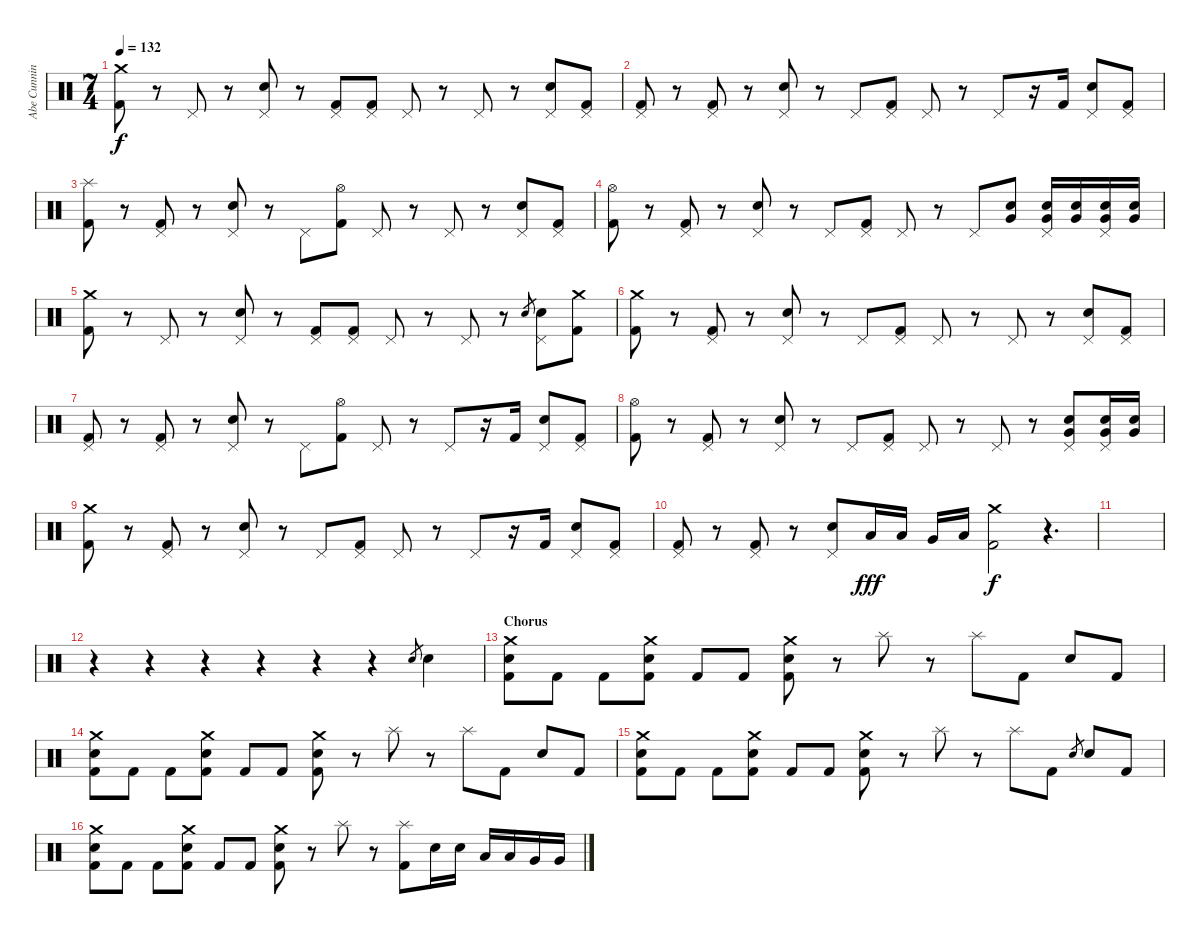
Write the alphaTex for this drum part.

\track ("Abe Cunningham" "Abe Cunnin") {instrument percussion}
\staff {score}
\articulation defaults
\ts (7 4)
\tempo 132
\clef neutral
\ks c
("Crash medium (hit)" "Kick (hit) 2").8{dy f} r.8 "Pedal Hi-Hat (hit)".8 r.8 ("Pedal Hi-Hat (hit)" "Electric Snare (hit)").8 r.8 ("Pedal Hi-Hat (hit)" "Kick (hit) 2").8 ("Pedal Hi-Hat (hit)" "Kick (hit) 2").8 "Pedal Hi-Hat (hit)".8 r.8 "Pedal Hi-Hat (hit)".8 r.8 ("Pedal Hi-Hat (hit)" "Electric Snare (hit)").8 ("Pedal Hi-Hat (hit)" "Kick (hit) 2").8 |
("Pedal Hi-Hat (hit)" "Kick (hit) 2").8 r.8 ("Pedal Hi-Hat (hit)" "Kick (hit) 2").8 r.8 ("Pedal Hi-Hat (hit)" "Electric Snare (hit)").8 r.8 "Pedal Hi-Hat (hit)".8 ("Pedal Hi-Hat (hit)" "Kick (hit) 2").8 "Pedal Hi-Hat (hit)".8 r.8 "Pedal Hi-Hat (hit)".8 r.16 "Kick (hit) 2".16 ("Pedal Hi-Hat (hit)" "Electric Snare (hit)").8 ("Pedal Hi-Hat (hit)" "Kick (hit) 2").8 |
("Splash (hit)" "Kick (hit) 2").8 r.8 ("Pedal Hi-Hat (hit)" "Kick (hit) 2").8 r.8 ("Pedal Hi-Hat (hit)" "Electric Snare (hit)").8 r.8 "Pedal Hi-Hat (hit)".8 ("Hi-Hat (open)" "Kick (hit) 2").8 "Pedal Hi-Hat (hit)".8 r.8 "Pedal Hi-Hat (hit)".8 r.8 ("Pedal Hi-Hat (hit)" "Electric Snare (hit)").8 ("Pedal Hi-Hat (hit)" "Kick (hit) 2").8 |
("Hi-Hat (open)" "Kick (hit) 2").8 r.8 ("Pedal Hi-Hat (hit)" "Kick (hit) 2").8 r.8 ("Pedal Hi-Hat (hit)" "Electric Snare (hit)").8 r.8 "Pedal Hi-Hat (hit)".8 ("Pedal Hi-Hat (hit)" "Kick (hit) 2").8 "Pedal Hi-Hat (hit)".8 r.8 "Pedal Hi-Hat (hit)".8 ("Electric Snare (hit)" "Very Low Tom (hit)").8 ("Pedal Hi-Hat (hit)" "Electric Snare (hit)" "Very Low Tom (hit)").16 ("Electric Snare (hit)" "Very Low Tom (hit)").16 ("Pedal Hi-Hat (hit)" "Electric Snare (hit)" "Very Low Tom (hit)").16 ("Electric Snare (hit)" "Very Low Tom (hit)").16 |
("Crash medium (hit)" "Kick (hit) 2").8 r.8 "Pedal Hi-Hat (hit)".8 r.8 ("Pedal Hi-Hat (hit)" "Electric Snare (hit)").8 r.8 ("Pedal Hi-Hat (hit)" "Kick (hit) 2").8 ("Pedal Hi-Hat (hit)" "Kick (hit) 2").8 "Pedal Hi-Hat (hit)".8 r.8 "Pedal Hi-Hat (hit)".8 r.8 "Electric Snare (hit)".8{gr} ("Pedal Hi-Hat (hit)" "Electric Snare (hit)").8 ("Crash medium (hit)" "Kick (hit) 2").8 |
("Crash medium (hit)" "Kick (hit) 2").8 r.8 ("Pedal Hi-Hat (hit)" "Kick (hit) 2").8 r.8 ("Pedal Hi-Hat (hit)" "Electric Snare (hit)").8 r.8 "Pedal Hi-Hat (hit)".8 ("Pedal Hi-Hat (hit)" "Kick (hit) 2").8 "Pedal Hi-Hat (hit)".8 r.8 "Pedal Hi-Hat (hit)".8 r.8 ("Pedal Hi-Hat (hit)" "Electric Snare (hit)").8 ("Pedal Hi-Hat (hit)" "Kick (hit) 2").8 |
("Pedal Hi-Hat (hit)" "Kick (hit) 2").8 r.8 ("Pedal Hi-Hat (hit)" "Kick (hit) 2").8 r.8 ("Pedal Hi-Hat (hit)" "Electric Snare (hit)").8 r.8 "Pedal Hi-Hat (hit)".8 ("Hi-Hat (open)" "Kick (hit) 2").8 "Pedal Hi-Hat (hit)".8 r.8 "Pedal Hi-Hat (hit)".8 r.16 "Kick (hit) 2".16 ("Pedal Hi-Hat (hit)" "Electric Snare (hit)").8 ("Pedal Hi-Hat (hit)" "Kick (hit) 2").8 |
("Hi-Hat (open)" "Kick (hit) 2").8 r.8 ("Pedal Hi-Hat (hit)" "Kick (hit) 2").8 r.8 ("Pedal Hi-Hat (hit)" "Electric Snare (hit)").8 r.8 "Pedal Hi-Hat (hit)".8 ("Pedal Hi-Hat (hit)" "Kick (hit) 2").8 "Pedal Hi-Hat (hit)".8 r.8 "Pedal Hi-Hat (hit)".8 r.8 ("Pedal Hi-Hat (hit)" "Electric Snare (hit)" "Very Low Tom (hit)").8 ("Pedal Hi-Hat (hit)" "Electric Snare (hit)" "Very Low Tom (hit)").16 ("Electric Snare (hit)" "Very Low Tom (hit)").16 |
("Crash medium (hit)" "Kick (hit) 2").8 r.8 ("Pedal Hi-Hat (hit)" "Kick (hit) 2").8 r.8 ("Pedal Hi-Hat (hit)" "Electric Snare (hit)").8 r.8 "Pedal Hi-Hat (hit)".8 ("Pedal Hi-Hat (hit)" "Kick (hit) 2").8 "Pedal Hi-Hat (hit)".8 r.8 "Pedal Hi-Hat (hit)".8 r.16 "Kick (hit) 2".16 ("Pedal Hi-Hat (hit)" "Electric Snare (hit)").8 ("Pedal Hi-Hat (hit)" "Kick (hit) 2").8 |
("Pedal Hi-Hat (hit)" "Kick (hit) 2").8 r.8 ("Pedal Hi-Hat (hit)" "Kick (hit) 2").8 r.8 ("Pedal Hi-Hat (hit)" "Electric Snare (hit)").8 "Low Tom (hit)".16{dy fff} "Low Tom (hit)".16 "Very Low Tom (hit)".16 "Low Floor Tom (hit)".16 ("Crash medium (hit)" "Kick (hit) 2").2{dy f} r.4{d} |
|
r.4 r.4 r.4 r.4 r.4 r.4 "Electric Snare (hit)".8{gr} "Electric Snare (hit)".4 |
\section ("" "Chorus")
("Crash medium (hit)" "Electric Snare (hit)" "Kick (hit) 2").8 "Kick (hit) 2".8 "Kick (hit) 2".8 ("Crash medium (hit)" "Electric Snare (hit)" "Kick (hit) 2").8 "Kick (hit) 2".8 "Kick (hit) 2".8 ("Crash medium (hit)" "Electric Snare (hit)" "Kick (hit) 2").8 r.8 "Splash (hit)".8 r.8 "Splash (hit)".8 "Kick (hit) 2".8 "Electric Snare (hit)".8 "Kick (hit) 2".8 |
("Crash medium (hit)" "Electric Snare (hit)" "Kick (hit) 2").8 "Kick (hit) 2".8 "Kick (hit) 2".8 ("Crash medium (hit)" "Electric Snare (hit)" "Kick (hit) 2").8 "Kick (hit) 2".8 "Kick (hit) 2".8 ("Crash medium (hit)" "Electric Snare (hit)" "Kick (hit) 2").8 r.8 "Splash (hit)".8 r.8 "Splash (hit)".8 "Kick (hit) 2".8 "Electric Snare (hit)".8 "Kick (hit) 2".8 |
("Crash medium (hit)" "Electric Snare (hit)" "Kick (hit) 2").8 "Kick (hit) 2".8 "Kick (hit) 2".8 ("Crash medium (hit)" "Electric Snare (hit)" "Kick (hit) 2").8 "Kick (hit) 2".8 "Kick (hit) 2".8 ("Crash medium (hit)" "Electric Snare (hit)" "Kick (hit) 2").8 r.8 "Splash (hit)".8 r.8 "Splash (hit)".8 "Kick (hit) 2".8 "Electric Snare (hit)".8{gr} "Electric Snare (hit)".8 "Kick (hit) 2".8 |
("Crash medium (hit)" "Electric Snare (hit)" "Kick (hit) 2").8 "Kick (hit) 2".8 "Kick (hit) 2".8 ("Crash medium (hit)" "Electric Snare (hit)" "Kick (hit) 2").8 "Kick (hit) 2".8 "Kick (hit) 2".8 ("Crash medium (hit)" "Electric Snare (hit)" "Kick (hit) 2").8 r.8 "Splash (hit)".8 r.8 ("Splash (hit)" "Kick (hit) 2").8 "Electric Snare (hit)".16 "Electric Snare (hit)".16 "Low Tom (hit)".16 "Low Tom (hit)".16 "Very Low Tom (hit)".16 "Very Low Tom (hit)".16
